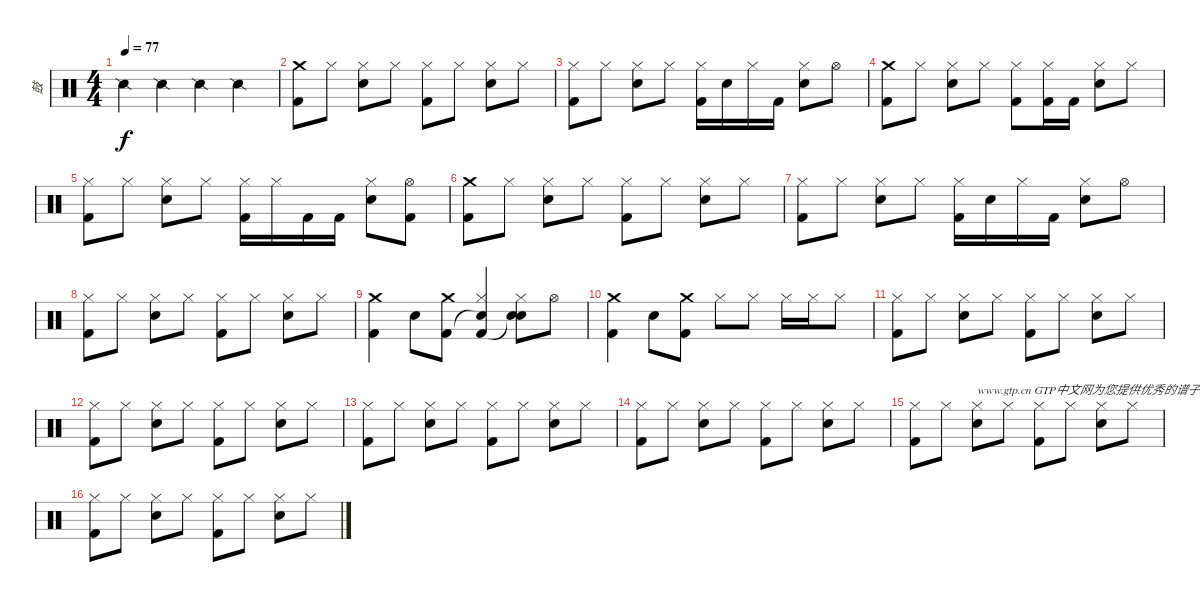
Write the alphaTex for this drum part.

\track ("鼓" "鼓") {instrument percussion}
\staff {score}
\articulation defaults
\ts (4 4)
\tempo 77
\clef neutral
\ks c "Snare (side stick) 2".4{dy f} "Snare (side stick) 2".4 "Snare (side stick) 2".4 "Snare (side stick) 2".4
|
("Crash medium (hit)" "Kick (hit) 2").8 "Hi-Hat (closed)".8 ("Hi-Hat (closed)" "Snare (hit) 2").8 "Hi-Hat (closed)".8 ("Hi-Hat (closed)" "Kick (hit) 2").8 "Hi-Hat (closed)".8 ("Hi-Hat (closed)" "Snare (hit) 2").8 "Hi-Hat (closed)".8 |
("Hi-Hat (closed)" "Kick (hit) 2").8 "Hi-Hat (closed)".8 ("Hi-Hat (closed)" "Snare (hit) 2").8 "Hi-Hat (closed)".8 ("Hi-Hat (closed)" "Kick (hit) 2").16 "Snare (hit) 2".16 "Hi-Hat (closed)".16 "Kick (hit) 2".16 ("Hi-Hat (closed)" "Snare (hit) 2").8 "Hi-Hat (open)".8 |
("Crash medium (hit)" "Kick (hit) 2").8 "Hi-Hat (closed)".8 ("Hi-Hat (closed)" "Snare (hit) 2").8 "Hi-Hat (closed)".8 ("Hi-Hat (closed)" "Kick (hit) 2").8 ("Hi-Hat (closed)" "Kick (hit) 2").16 "Kick (hit) 2".16 ("Hi-Hat (closed)" "Snare (hit) 2").8 "Hi-Hat (closed)".8 |
("Hi-Hat (closed)" "Kick (hit) 2").8 "Hi-Hat (closed)".8 ("Hi-Hat (closed)" "Snare (hit) 2").8 "Hi-Hat (closed)".8 ("Hi-Hat (closed)" "Kick (hit) 2").16 "Hi-Hat (closed)".16 "Kick (hit) 2".16 "Kick (hit) 2".16 ("Hi-Hat (closed)" "Snare (hit) 2").8 ("Hi-Hat (open)" "Kick (hit) 2").8 |
("Crash medium (hit)" "Kick (hit) 2").8 "Hi-Hat (closed)".8 ("Hi-Hat (closed)" "Snare (hit) 2").8 "Hi-Hat (closed)".8 ("Hi-Hat (closed)" "Kick (hit) 2").8 "Hi-Hat (closed)".8 ("Hi-Hat (closed)" "Snare (hit) 2").8 "Hi-Hat (closed)".8 |
("Hi-Hat (closed)" "Kick (hit) 2").8 "Hi-Hat (closed)".8 ("Hi-Hat (closed)" "Snare (hit) 2").8 "Hi-Hat (closed)".8 ("Hi-Hat (closed)" "Kick (hit) 2").16 "Snare (hit) 2".16 "Hi-Hat (closed)".16 "Kick (hit) 2".16 ("Hi-Hat (closed)" "Snare (hit) 2").8 "Hi-Hat (open)".8 |
("Hi-Hat (closed)" "Kick (hit) 2").8 "Hi-Hat (closed)".8 ("Hi-Hat (closed)" "Snare (hit) 2").8 "Hi-Hat (closed)".8 ("Hi-Hat (closed)" "Kick (hit) 2").8 "Hi-Hat (closed)".8 ("Hi-Hat (closed)" "Snare (hit) 2").8 "Hi-Hat (closed)".8 |
("Crash medium (hit)" "Kick (hit) 2").4 "Snare (hit) 2".8 ("Crash medium (hit)" "Kick (hit) 2").8 ("Hi-Hat (closed)" "Snare (hit)"{t} "Kick (hit) 2").4 ("Hi-Hat (closed)" "Snare (hit) 2" "Snare (hit)"{t}).8 "Hi-Hat (open)".8 |
("Crash medium (hit)" "Kick (hit) 2").4 "Snare (hit) 2".8 ("Crash medium (hit)" "Kick (hit) 2").8 "Hi-Hat (closed)".8 "Hi-Hat (closed)".8 "Hi-Hat (closed)".16 "Hi-Hat (closed)".16 "Hi-Hat (closed)".8 |
("Hi-Hat (closed)" "Kick (hit) 2").8 "Hi-Hat (closed)".8 ("Hi-Hat (closed)" "Snare (hit) 2").8 "Hi-Hat (closed)".8 ("Hi-Hat (closed)" "Kick (hit) 2").8 "Hi-Hat (closed)".8 ("Hi-Hat (closed)" "Snare (hit) 2").8 "Hi-Hat (closed)".8 |
("Hi-Hat (closed)" "Kick (hit) 2").8 "Hi-Hat (closed)".8 ("Hi-Hat (closed)" "Snare (hit) 2").8 "Hi-Hat (closed)".8 ("Hi-Hat (closed)" "Kick (hit) 2").8 "Hi-Hat (closed)".8 ("Hi-Hat (closed)" "Snare (hit) 2").8 "Hi-Hat (closed)".8 |
("Hi-Hat (closed)" "Kick (hit) 2").8 "Hi-Hat (closed)".8 ("Hi-Hat (closed)" "Snare (hit) 2").8 "Hi-Hat (closed)".8 ("Hi-Hat (closed)" "Kick (hit) 2").8 "Hi-Hat (closed)".8 ("Hi-Hat (closed)" "Snare (hit) 2").8 "Hi-Hat (closed)".8 |
("Hi-Hat (closed)" "Kick (hit) 2").8 "Hi-Hat (closed)".8 ("Hi-Hat (closed)" "Snare (hit) 2").8 "Hi-Hat (closed)".8 ("Hi-Hat (closed)" "Kick (hit) 2").8 "Hi-Hat (closed)".8 ("Hi-Hat (closed)" "Snare (hit) 2").8 "Hi-Hat (closed)".8 |
("Hi-Hat (closed)" "Kick (hit) 2").8 "Hi-Hat (closed)".8 ("Hi-Hat (closed)" "Snare (hit) 2").8{txt "www.gtp.cn GTP中文网为您提供优秀的谱子"} "Hi-Hat (closed)".8 ("Hi-Hat (closed)" "Kick (hit) 2").8 "Hi-Hat (closed)".8 ("Hi-Hat (closed)" "Snare (hit) 2").8 "Hi-Hat (closed)".8 |
("Hi-Hat (closed)" "Kick (hit) 2").8 "Hi-Hat (closed)".8 ("Hi-Hat (closed)" "Snare (hit) 2").8 "Hi-Hat (closed)".8 ("Hi-Hat (closed)" "Kick (hit) 2").8 "Hi-Hat (closed)".8 ("Hi-Hat (closed)" "Snare (hit) 2").8 "Hi-Hat (closed)".8
